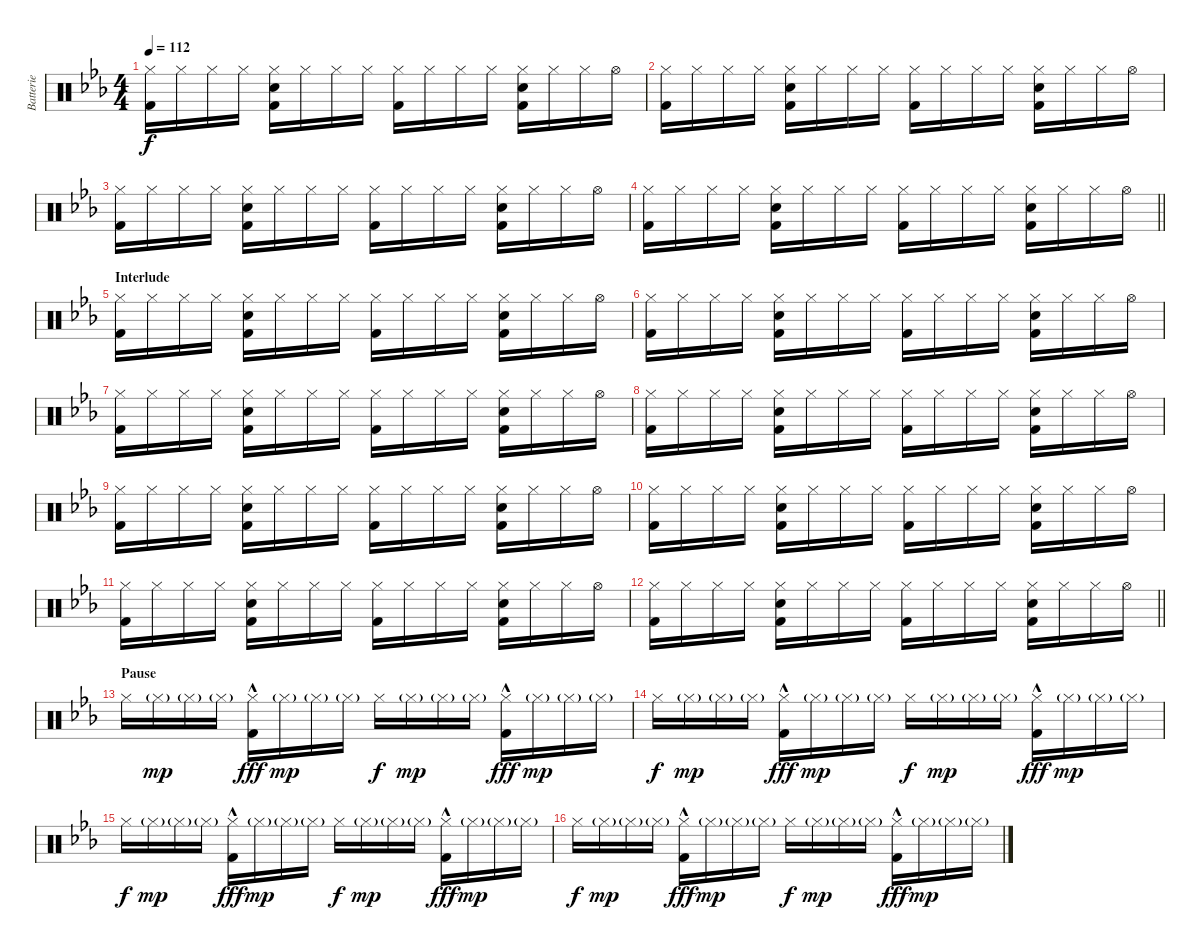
\track ("Batterie" "Batterie") {instrument percussion}
\staff {score}
\articulation defaults
\ts (4 4)
\tempo 112
\clef neutral
\ks cminor
("Hi-Hat (closed)" "Kick (hit) 2").16{dy f} "Hi-Hat (closed)".16 "Hi-Hat (closed)".16 "Hi-Hat (closed)".16 ("Hi-Hat (closed)" "Electric Snare (hit)" "Kick (hit) 2").16 "Hi-Hat (closed)".16 "Hi-Hat (closed)".16 "Hi-Hat (closed)".16 ("Hi-Hat (closed)" "Kick (hit) 2").16 "Hi-Hat (closed)".16 "Hi-Hat (closed)".16 "Hi-Hat (closed)".16 ("Hi-Hat (closed)" "Electric Snare (hit)" "Kick (hit) 2").16 "Hi-Hat (closed)".16 "Hi-Hat (closed)".16 "Hi-Hat (open)".16 |
("Hi-Hat (closed)" "Kick (hit) 2").16 "Hi-Hat (closed)".16 "Hi-Hat (closed)".16 "Hi-Hat (closed)".16 ("Hi-Hat (closed)" "Electric Snare (hit)" "Kick (hit) 2").16 "Hi-Hat (closed)".16 "Hi-Hat (closed)".16 "Hi-Hat (closed)".16 ("Hi-Hat (closed)" "Kick (hit) 2").16 "Hi-Hat (closed)".16 "Hi-Hat (closed)".16 "Hi-Hat (closed)".16 ("Hi-Hat (closed)" "Electric Snare (hit)" "Kick (hit) 2").16 "Hi-Hat (closed)".16 "Hi-Hat (closed)".16 "Hi-Hat (open)".16 |
("Hi-Hat (closed)" "Kick (hit) 2").16 "Hi-Hat (closed)".16 "Hi-Hat (closed)".16 "Hi-Hat (closed)".16 ("Hi-Hat (closed)" "Electric Snare (hit)" "Kick (hit) 2").16 "Hi-Hat (closed)".16 "Hi-Hat (closed)".16 "Hi-Hat (closed)".16 ("Hi-Hat (closed)" "Kick (hit) 2").16 "Hi-Hat (closed)".16 "Hi-Hat (closed)".16 "Hi-Hat (closed)".16 ("Hi-Hat (closed)" "Electric Snare (hit)" "Kick (hit) 2").16 "Hi-Hat (closed)".16 "Hi-Hat (closed)".16 "Hi-Hat (open)".16 |
\barLineRight lightlight
("Hi-Hat (closed)" "Kick (hit) 2").16 "Hi-Hat (closed)".16 "Hi-Hat (closed)".16 "Hi-Hat (closed)".16 ("Hi-Hat (closed)" "Electric Snare (hit)" "Kick (hit) 2").16 "Hi-Hat (closed)".16 "Hi-Hat (closed)".16 "Hi-Hat (closed)".16 ("Hi-Hat (closed)" "Kick (hit) 2").16 "Hi-Hat (closed)".16 "Hi-Hat (closed)".16 "Hi-Hat (closed)".16 ("Hi-Hat (closed)" "Electric Snare (hit)" "Kick (hit) 2").16 "Hi-Hat (closed)".16 "Hi-Hat (closed)".16 "Hi-Hat (open)".16 |
\section ("" "Interlude")
("Hi-Hat (closed)" "Kick (hit) 2").16 "Hi-Hat (closed)".16 "Hi-Hat (closed)".16 "Hi-Hat (closed)".16 ("Hi-Hat (closed)" "Electric Snare (hit)" "Kick (hit) 2").16 "Hi-Hat (closed)".16 "Hi-Hat (closed)".16 "Hi-Hat (closed)".16 ("Hi-Hat (closed)" "Kick (hit) 2").16 "Hi-Hat (closed)".16 "Hi-Hat (closed)".16 "Hi-Hat (closed)".16 ("Hi-Hat (closed)" "Electric Snare (hit)" "Kick (hit) 2").16 "Hi-Hat (closed)".16 "Hi-Hat (closed)".16 "Hi-Hat (open)".16 |
("Hi-Hat (closed)" "Kick (hit) 2").16 "Hi-Hat (closed)".16 "Hi-Hat (closed)".16 "Hi-Hat (closed)".16 ("Hi-Hat (closed)" "Electric Snare (hit)" "Kick (hit) 2").16 "Hi-Hat (closed)".16 "Hi-Hat (closed)".16 "Hi-Hat (closed)".16 ("Hi-Hat (closed)" "Kick (hit) 2").16 "Hi-Hat (closed)".16 "Hi-Hat (closed)".16 "Hi-Hat (closed)".16 ("Hi-Hat (closed)" "Electric Snare (hit)" "Kick (hit) 2").16 "Hi-Hat (closed)".16 "Hi-Hat (closed)".16 "Hi-Hat (open)".16 |
("Hi-Hat (closed)" "Kick (hit) 2").16 "Hi-Hat (closed)".16 "Hi-Hat (closed)".16 "Hi-Hat (closed)".16 ("Hi-Hat (closed)" "Electric Snare (hit)" "Kick (hit) 2").16 "Hi-Hat (closed)".16 "Hi-Hat (closed)".16 "Hi-Hat (closed)".16 ("Hi-Hat (closed)" "Kick (hit) 2").16 "Hi-Hat (closed)".16 "Hi-Hat (closed)".16 "Hi-Hat (closed)".16 ("Hi-Hat (closed)" "Electric Snare (hit)" "Kick (hit) 2").16 "Hi-Hat (closed)".16 "Hi-Hat (closed)".16 "Hi-Hat (open)".16 |
("Hi-Hat (closed)" "Kick (hit) 2").16 "Hi-Hat (closed)".16 "Hi-Hat (closed)".16 "Hi-Hat (closed)".16 ("Hi-Hat (closed)" "Electric Snare (hit)" "Kick (hit) 2").16 "Hi-Hat (closed)".16 "Hi-Hat (closed)".16 "Hi-Hat (closed)".16 ("Hi-Hat (closed)" "Kick (hit) 2").16 "Hi-Hat (closed)".16 "Hi-Hat (closed)".16 "Hi-Hat (closed)".16 ("Hi-Hat (closed)" "Electric Snare (hit)" "Kick (hit) 2").16 "Hi-Hat (closed)".16 "Hi-Hat (closed)".16 "Hi-Hat (open)".16 |
("Hi-Hat (closed)" "Kick (hit) 2").16 "Hi-Hat (closed)".16 "Hi-Hat (closed)".16 "Hi-Hat (closed)".16 ("Hi-Hat (closed)" "Electric Snare (hit)" "Kick (hit) 2").16 "Hi-Hat (closed)".16 "Hi-Hat (closed)".16 "Hi-Hat (closed)".16 ("Hi-Hat (closed)" "Kick (hit) 2").16 "Hi-Hat (closed)".16 "Hi-Hat (closed)".16 "Hi-Hat (closed)".16 ("Hi-Hat (closed)" "Electric Snare (hit)" "Kick (hit) 2").16 "Hi-Hat (closed)".16 "Hi-Hat (closed)".16 "Hi-Hat (open)".16 |
("Hi-Hat (closed)" "Kick (hit) 2").16 "Hi-Hat (closed)".16 "Hi-Hat (closed)".16 "Hi-Hat (closed)".16 ("Hi-Hat (closed)" "Electric Snare (hit)" "Kick (hit) 2").16 "Hi-Hat (closed)".16 "Hi-Hat (closed)".16 "Hi-Hat (closed)".16 ("Hi-Hat (closed)" "Kick (hit) 2").16 "Hi-Hat (closed)".16 "Hi-Hat (closed)".16 "Hi-Hat (closed)".16 ("Hi-Hat (closed)" "Electric Snare (hit)" "Kick (hit) 2").16 "Hi-Hat (closed)".16 "Hi-Hat (closed)".16 "Hi-Hat (open)".16 |
("Hi-Hat (closed)" "Kick (hit) 2").16 "Hi-Hat (closed)".16 "Hi-Hat (closed)".16 "Hi-Hat (closed)".16 ("Hi-Hat (closed)" "Electric Snare (hit)" "Kick (hit) 2").16 "Hi-Hat (closed)".16 "Hi-Hat (closed)".16 "Hi-Hat (closed)".16 ("Hi-Hat (closed)" "Kick (hit) 2").16 "Hi-Hat (closed)".16 "Hi-Hat (closed)".16 "Hi-Hat (closed)".16 ("Hi-Hat (closed)" "Electric Snare (hit)" "Kick (hit) 2").16 "Hi-Hat (closed)".16 "Hi-Hat (closed)".16 "Hi-Hat (open)".16 |
\barLineRight lightlight
("Hi-Hat (closed)" "Kick (hit) 2").16 "Hi-Hat (closed)".16 "Hi-Hat (closed)".16 "Hi-Hat (closed)".16 ("Hi-Hat (closed)" "Electric Snare (hit)" "Kick (hit) 2").16 "Hi-Hat (closed)".16 "Hi-Hat (closed)".16 "Hi-Hat (closed)".16 ("Hi-Hat (closed)" "Kick (hit) 2").16 "Hi-Hat (closed)".16 "Hi-Hat (closed)".16 "Hi-Hat (closed)".16 ("Hi-Hat (closed)" "Electric Snare (hit)" "Kick (hit) 2").16 "Hi-Hat (closed)".16 "Hi-Hat (closed)".16 "Hi-Hat (open)".16 |
\section ("" "Pause")
"Hi-Hat (closed)".16 "Hi-Hat (closed)"{g}.16{dy mp} "Hi-Hat (closed)"{g}.16 "Hi-Hat (closed)"{g}.16 ("Hi-Hat (closed)" "Kick (hit) 2"{hac}).16{dy fff} "Hi-Hat (closed)"{g}.16{dy mp} "Hi-Hat (closed)"{g}.16 "Hi-Hat (closed)"{g}.16 "Hi-Hat (closed)".16{dy f} "Hi-Hat (closed)"{g}.16{dy mp} "Hi-Hat (closed)"{g}.16 "Hi-Hat (closed)"{g}.16 ("Hi-Hat (closed)" "Kick (hit) 2"{hac}).16{dy fff} "Hi-Hat (closed)"{g}.16{dy mp} "Hi-Hat (closed)"{g}.16 "Hi-Hat (closed)"{g}.16 |
"Hi-Hat (closed)".16{dy f} "Hi-Hat (closed)"{g}.16{dy mp} "Hi-Hat (closed)"{g}.16 "Hi-Hat (closed)"{g}.16 ("Hi-Hat (closed)" "Kick (hit) 2"{hac}).16{dy fff} "Hi-Hat (closed)"{g}.16{dy mp} "Hi-Hat (closed)"{g}.16 "Hi-Hat (closed)"{g}.16 "Hi-Hat (closed)".16{dy f} "Hi-Hat (closed)"{g}.16{dy mp} "Hi-Hat (closed)"{g}.16 "Hi-Hat (closed)"{g}.16 ("Hi-Hat (closed)" "Kick (hit) 2"{hac}).16{dy fff} "Hi-Hat (closed)"{g}.16{dy mp} "Hi-Hat (closed)"{g}.16 "Hi-Hat (closed)"{g}.16 |
"Hi-Hat (closed)".16{dy f} "Hi-Hat (closed)"{g}.16{dy mp} "Hi-Hat (closed)"{g}.16 "Hi-Hat (closed)"{g}.16 ("Hi-Hat (closed)" "Kick (hit) 2"{hac}).16{dy fff} "Hi-Hat (closed)"{g}.16{dy mp} "Hi-Hat (closed)"{g}.16 "Hi-Hat (closed)"{g}.16 "Hi-Hat (closed)".16{dy f} "Hi-Hat (closed)"{g}.16{dy mp} "Hi-Hat (closed)"{g}.16 "Hi-Hat (closed)"{g}.16 ("Hi-Hat (closed)" "Kick (hit) 2"{hac}).16{dy fff} "Hi-Hat (closed)"{g}.16{dy mp} "Hi-Hat (closed)"{g}.16 "Hi-Hat (closed)"{g}.16 |
"Hi-Hat (closed)".16{dy f} "Hi-Hat (closed)"{g}.16{dy mp} "Hi-Hat (closed)"{g}.16 "Hi-Hat (closed)"{g}.16 ("Hi-Hat (closed)" "Kick (hit) 2"{hac}).16{dy fff} "Hi-Hat (closed)"{g}.16{dy mp} "Hi-Hat (closed)"{g}.16 "Hi-Hat (closed)"{g}.16 "Hi-Hat (closed)".16{dy f} "Hi-Hat (closed)"{g}.16{dy mp} "Hi-Hat (closed)"{g}.16 "Hi-Hat (closed)"{g}.16 ("Hi-Hat (closed)" "Kick (hit) 2"{hac}).16{dy fff} "Hi-Hat (closed)"{g}.16{dy mp} "Hi-Hat (closed)"{g}.16 "Hi-Hat (closed)"{g}.16
